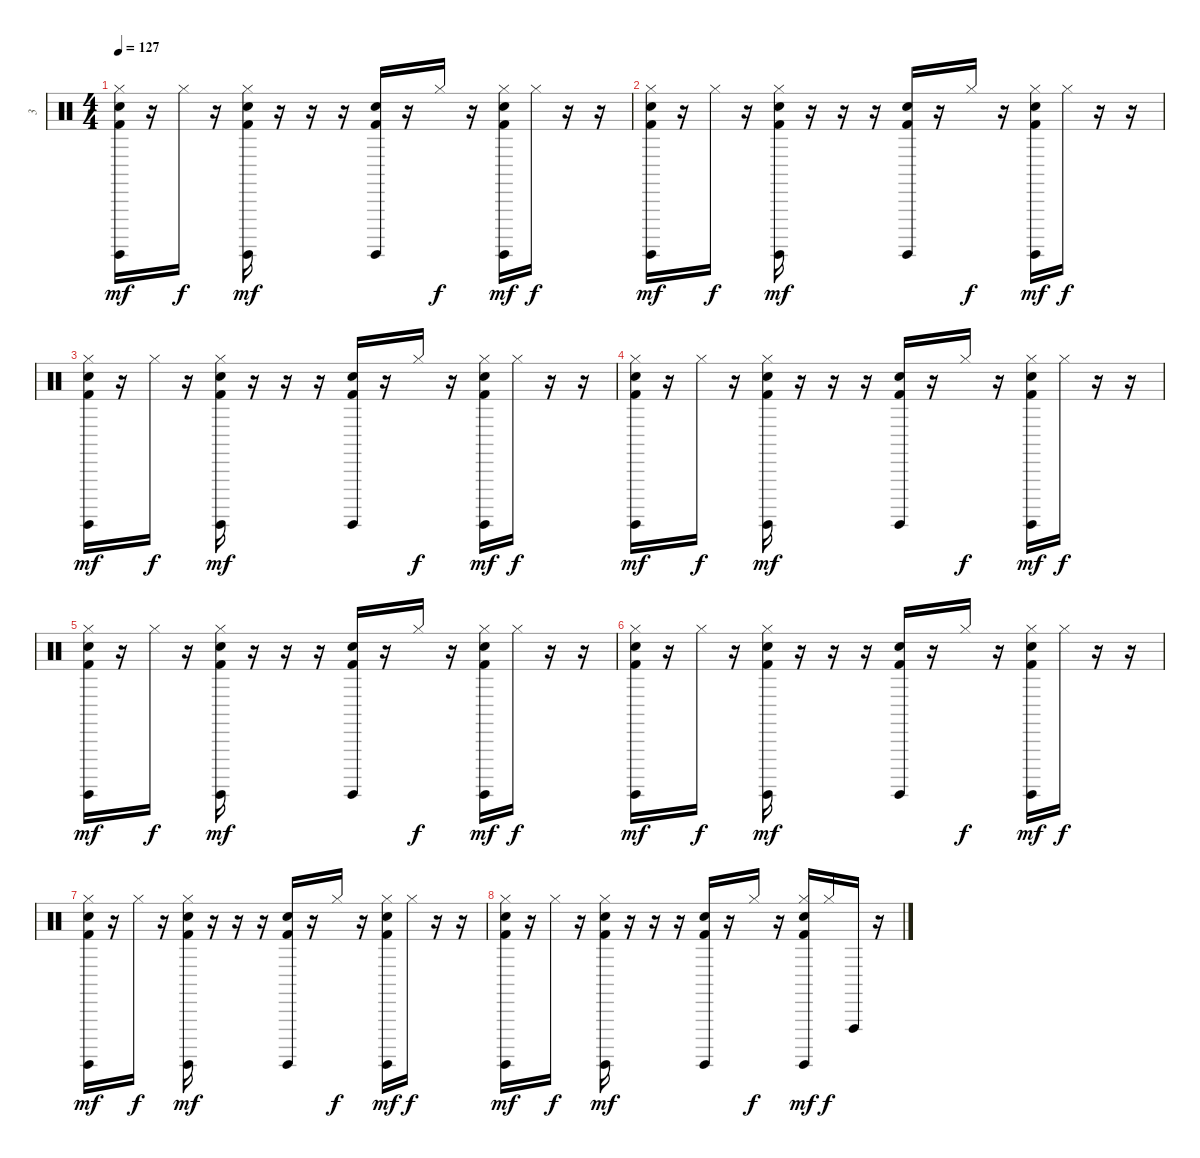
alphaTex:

\track ("3" "3") {instrument percussion}
\staff {score}
\articulation defaults
\ts (4 4)
\tempo 127
\clef neutral
\ks c
("Hi-Hat (closed)" "Surdo (hit)" "Kick (hit) 2" "Hand Clap (hit)").16{dy mf} r.16 "Hi-Hat (closed)".16{dy f} r.16 ("Hi-Hat (closed)" "Surdo (hit)" "Kick (hit) 2" "Hand Clap (hit)").16{dy mf} r.16 r.16 r.16 ("Surdo (hit)" "Kick (hit) 2" "Hand Clap (hit)").16 r.16 "Hi-Hat (closed)".16{dy f} r.16 ("Hi-Hat (closed)" "Surdo (hit)" "Kick (hit) 2" "Hand Clap (hit)").16{dy mf} "Hi-Hat (closed)".16{dy f} r.16 r.16 |
("Hi-Hat (closed)" "Surdo (hit)" "Kick (hit) 2" "Hand Clap (hit)").16{dy mf} r.16 "Hi-Hat (closed)".16{dy f} r.16 ("Hi-Hat (closed)" "Surdo (hit)" "Kick (hit) 2" "Hand Clap (hit)").16{dy mf} r.16 r.16 r.16 ("Surdo (hit)" "Kick (hit) 2" "Hand Clap (hit)").16 r.16 "Hi-Hat (closed)".16{dy f} r.16 ("Hi-Hat (closed)" "Surdo (hit)" "Kick (hit) 2" "Hand Clap (hit)").16{dy mf} "Hi-Hat (closed)".16{dy f} r.16 r.16 |
("Hi-Hat (closed)" "Surdo (hit)" "Kick (hit) 2" "Hand Clap (hit)").16{dy mf} r.16 "Hi-Hat (closed)".16{dy f} r.16 ("Hi-Hat (closed)" "Surdo (hit)" "Kick (hit) 2" "Hand Clap (hit)").16{dy mf} r.16 r.16 r.16 ("Surdo (hit)" "Kick (hit) 2" "Hand Clap (hit)").16 r.16 "Hi-Hat (closed)".16{dy f} r.16 ("Hi-Hat (closed)" "Surdo (hit)" "Kick (hit) 2" "Hand Clap (hit)").16{dy mf} "Hi-Hat (closed)".16{dy f} r.16 r.16 |
("Hi-Hat (closed)" "Surdo (hit)" "Kick (hit) 2" "Hand Clap (hit)").16{dy mf} r.16 "Hi-Hat (closed)".16{dy f} r.16 ("Hi-Hat (closed)" "Surdo (hit)" "Kick (hit) 2" "Hand Clap (hit)").16{dy mf} r.16 r.16 r.16 ("Surdo (hit)" "Kick (hit) 2" "Hand Clap (hit)").16 r.16 "Hi-Hat (closed)".16{dy f} r.16 ("Hi-Hat (closed)" "Surdo (hit)" "Kick (hit) 2" "Hand Clap (hit)").16{dy mf} "Hi-Hat (closed)".16{dy f} r.16 r.16 |
("Hi-Hat (closed)" "Surdo (hit)" "Kick (hit) 2" "Hand Clap (hit)").16{dy mf} r.16 "Hi-Hat (closed)".16{dy f} r.16 ("Hi-Hat (closed)" "Surdo (hit)" "Kick (hit) 2" "Hand Clap (hit)").16{dy mf} r.16 r.16 r.16 ("Surdo (hit)" "Kick (hit) 2" "Hand Clap (hit)").16 r.16 "Hi-Hat (closed)".16{dy f} r.16 ("Hi-Hat (closed)" "Surdo (hit)" "Kick (hit) 2" "Hand Clap (hit)").16{dy mf} "Hi-Hat (closed)".16{dy f} r.16 r.16 |
("Hi-Hat (closed)" "Surdo (hit)" "Kick (hit) 2" "Hand Clap (hit)").16{dy mf} r.16 "Hi-Hat (closed)".16{dy f} r.16 ("Hi-Hat (closed)" "Surdo (hit)" "Kick (hit) 2" "Hand Clap (hit)").16{dy mf} r.16 r.16 r.16 ("Surdo (hit)" "Kick (hit) 2" "Hand Clap (hit)").16 r.16 "Hi-Hat (closed)".16{dy f} r.16 ("Hi-Hat (closed)" "Surdo (hit)" "Kick (hit) 2" "Hand Clap (hit)").16{dy mf} "Hi-Hat (closed)".16{dy f} r.16 r.16 |
("Hi-Hat (closed)" "Surdo (hit)" "Kick (hit) 2" "Hand Clap (hit)").16{dy mf} r.16 "Hi-Hat (closed)".16{dy f} r.16 ("Hi-Hat (closed)" "Surdo (hit)" "Kick (hit) 2" "Hand Clap (hit)").16{dy mf} r.16 r.16 r.16 ("Surdo (hit)" "Kick (hit) 2" "Hand Clap (hit)").16 r.16 "Hi-Hat (closed)".16{dy f} r.16 ("Hi-Hat (closed)" "Surdo (hit)" "Kick (hit) 2" "Hand Clap (hit)").16{dy mf} "Hi-Hat (closed)".16{dy f} r.16 r.16 |
("Hi-Hat (closed)" "Surdo (hit)" "Kick (hit) 2" "Hand Clap (hit)").16{dy mf} r.16 "Hi-Hat (closed)".16{dy f} r.16 ("Hi-Hat (closed)" "Surdo (hit)" "Kick (hit) 2" "Hand Clap (hit)").16{dy mf} r.16 r.16 r.16 ("Surdo (hit)" "Kick (hit) 2" "Hand Clap (hit)").16 r.16 "Hi-Hat (closed)".16{dy f} r.16 ("Hi-Hat (closed)" "Surdo (hit)" "Kick (hit) 2" "Hand Clap (hit)").16{dy mf} "Hi-Hat (closed)".16{dy f} "Vibraslap (hit)".16 r.16
